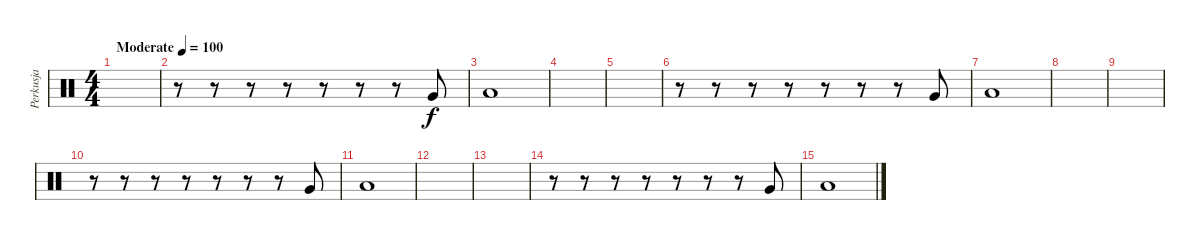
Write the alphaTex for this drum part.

\track ("Perkusja" "Perkusja") {instrument percussion}
\staff {score}
\articulation defaults
\ts (4 4)
\tempo (100 "Moderate")
\clef neutral
\ks c
|
r.8 r.8 r.8 r.8 r.8 r.8 r.8 "Very Low Tom (hit)".8 |
"Low Floor Tom (hit)".1 |
|
|
r.8 r.8 r.8 r.8 r.8 r.8 r.8 "Very Low Tom (hit)".8 |
"Low Floor Tom (hit)".1 |
|
|
r.8 r.8 r.8 r.8 r.8 r.8 r.8 "Very Low Tom (hit)".8 |
"Low Floor Tom (hit)".1 |
|
|
r.8 r.8 r.8 r.8 r.8 r.8 r.8 "Very Low Tom (hit)".8 |
"Low Floor Tom (hit)".1
